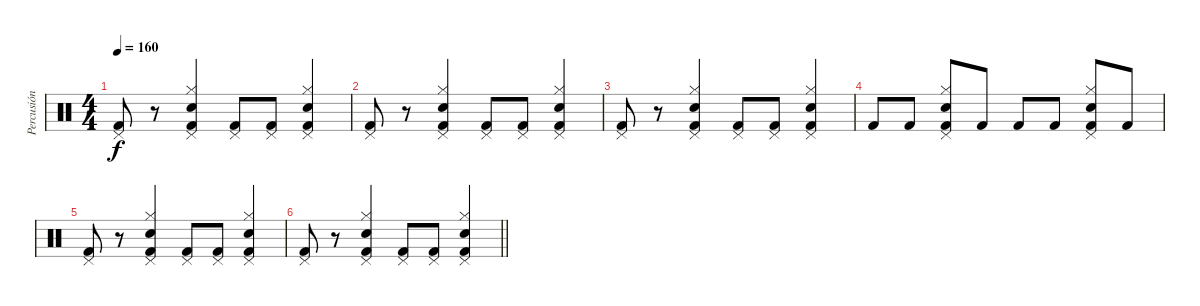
\track ("Percusión" "Percusión") {instrument percussion}
\staff {score}
\articulation defaults
\ts (4 4)
\tempo 160
\clef neutral
\ks c
("Pedal Hi-Hat (hit)" "Kick (hit) 2").8{dy f} r.8 ("Hi-Hat (closed)" "Pedal Hi-Hat (hit)" "Electric Snare (hit)" "Kick (hit) 2").4 ("Pedal Hi-Hat (hit)" "Kick (hit) 2").8 ("Pedal Hi-Hat (hit)" "Kick (hit) 2").8 ("Hi-Hat (closed)" "Pedal Hi-Hat (hit)" "Electric Snare (hit)" "Kick (hit) 2").4 |
("Pedal Hi-Hat (hit)" "Kick (hit) 2").8 r.8 ("Hi-Hat (closed)" "Pedal Hi-Hat (hit)" "Electric Snare (hit)" "Kick (hit) 2").4 ("Pedal Hi-Hat (hit)" "Kick (hit) 2").8 ("Pedal Hi-Hat (hit)" "Kick (hit) 2").8 ("Hi-Hat (closed)" "Pedal Hi-Hat (hit)" "Electric Snare (hit)" "Kick (hit) 2").4 |
("Pedal Hi-Hat (hit)" "Kick (hit) 2").8 r.8 ("Hi-Hat (closed)" "Pedal Hi-Hat (hit)" "Electric Snare (hit)" "Kick (hit) 2").4 ("Pedal Hi-Hat (hit)" "Kick (hit) 2").8 ("Pedal Hi-Hat (hit)" "Kick (hit) 2").8 ("Hi-Hat (closed)" "Pedal Hi-Hat (hit)" "Electric Snare (hit)" "Kick (hit) 2").4 |
"Kick (hit) 2".8 "Kick (hit) 2".8 ("Hi-Hat (closed)" "Pedal Hi-Hat (hit)" "Electric Snare (hit)" "Kick (hit) 2").8 "Kick (hit) 2".8 "Kick (hit) 2".8 "Kick (hit) 2".8 ("Hi-Hat (closed)" "Pedal Hi-Hat (hit)" "Electric Snare (hit)" "Kick (hit) 2").8 "Kick (hit) 2".8 |
("Pedal Hi-Hat (hit)" "Kick (hit) 2").8 r.8 ("Hi-Hat (closed)" "Pedal Hi-Hat (hit)" "Electric Snare (hit)" "Kick (hit) 2").4 ("Pedal Hi-Hat (hit)" "Kick (hit) 2").8 ("Pedal Hi-Hat (hit)" "Kick (hit) 2").8 ("Hi-Hat (closed)" "Pedal Hi-Hat (hit)" "Electric Snare (hit)" "Kick (hit) 2").4 |
\barLineRight lightlight
("Pedal Hi-Hat (hit)" "Kick (hit) 2").8 r.8 ("Hi-Hat (closed)" "Pedal Hi-Hat (hit)" "Electric Snare (hit)" "Kick (hit) 2").4 ("Pedal Hi-Hat (hit)" "Kick (hit) 2").8 ("Pedal Hi-Hat (hit)" "Kick (hit) 2").8 ("Hi-Hat (closed)" "Pedal Hi-Hat (hit)" "Electric Snare (hit)" "Kick (hit) 2").4
